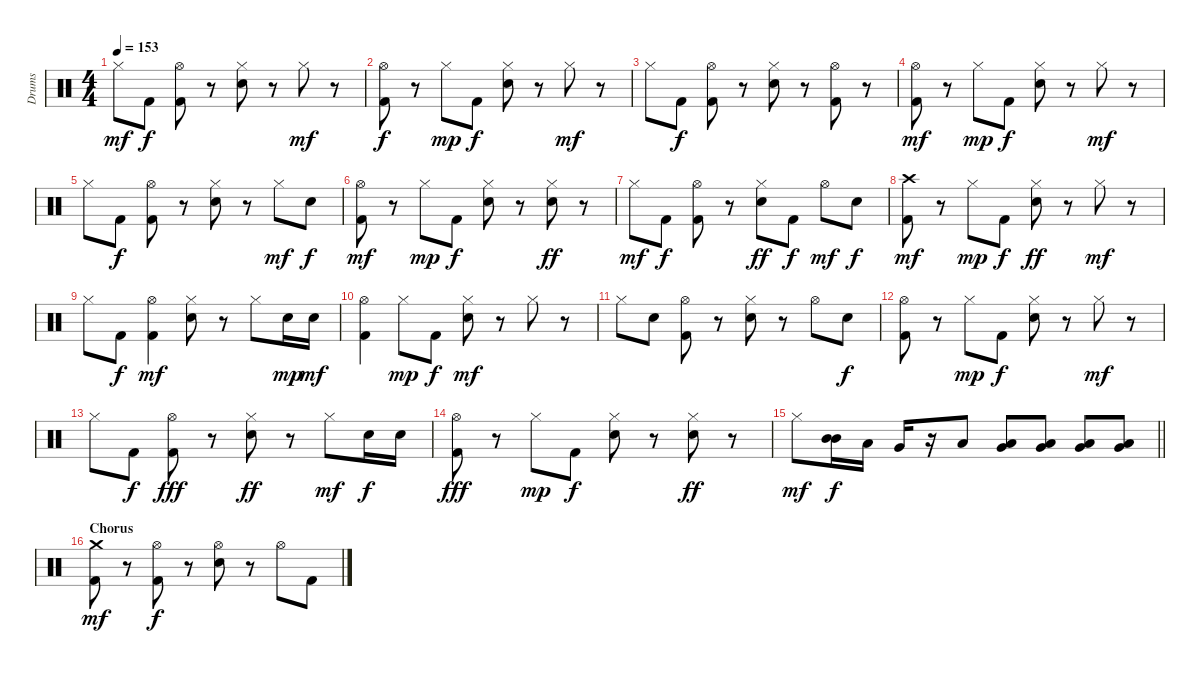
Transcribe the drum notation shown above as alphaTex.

\track ("Drums" "Drums") {instrument percussion}
\staff {score}
\articulation defaults
\ts (4 4)
\tempo 153
\clef neutral
\ks c "Hi-Hat (closed)".8{dy mf} "Kick (hit) 2".8{dy f}
("Hi-Hat (open)" "Kick (hit) 2").8 r.8 ("Hi-Hat (closed)" "Electric Snare (hit)").8 r.8 "Hi-Hat (closed)".8{dy mf} r.8 |
("Hi-Hat (open)" "Kick (hit) 2").8{dy f} r.8 "Hi-Hat (closed)".8{dy mp} "Kick (hit) 2".8{dy f} ("Hi-Hat (closed)" "Electric Snare (hit)").8 r.8 "Hi-Hat (closed)".8{dy mf} r.8 |
"Hi-Hat (closed)".8 "Kick (hit) 2".8{dy f} ("Hi-Hat (open)" "Kick (hit) 2").8 r.8 ("Hi-Hat (closed)" "Electric Snare (hit)").8 r.8 ("Hi-Hat (open)" "Kick (hit) 2").8 r.8 |
("Hi-Hat (open)" "Kick (hit) 2").8{dy mf} r.8 "Hi-Hat (closed)".8{dy mp} "Kick (hit) 2".8{dy f} ("Hi-Hat (closed)" "Electric Snare (hit)").8 r.8 "Hi-Hat (closed)".8{dy mf} r.8 |
"Hi-Hat (closed)".8 "Kick (hit) 2".8{dy f} ("Hi-Hat (open)" "Kick (hit) 2").8 r.8 ("Hi-Hat (closed)" "Electric Snare (hit)").8 r.8 "Hi-Hat (closed)".8{dy mf} "Electric Snare (hit)".8{dy f} |
("Hi-Hat (open)" "Kick (hit) 2").8{dy mf} r.8 "Hi-Hat (closed)".8{dy mp} "Kick (hit) 2".8{dy f} ("Hi-Hat (closed)" "Electric Snare (hit)").8 r.8 ("Hi-Hat (closed)" "Electric Snare (hit)").8{dy ff} r.8 |
"Hi-Hat (closed)".8{dy mf} "Kick (hit) 2".8{dy f} ("Hi-Hat (open)" "Kick (hit) 2").8 r.8 ("Hi-Hat (closed)" "Electric Snare (hit)").8{dy ff} "Kick (hit) 2".8{dy f} "Hi-Hat (open)".8{dy mf} "Electric Snare (hit)".8{dy f} |
("Crash high (hit)" "Kick (hit) 2").8{dy mf} r.8 "Hi-Hat (closed)".8{dy mp} "Kick (hit) 2".8{dy f} ("Hi-Hat (closed)" "Electric Snare (hit)").8{dy ff} r.8 "Hi-Hat (closed)".8{dy mf} r.8 |
"Hi-Hat (closed)".8 "Kick (hit) 2".8{dy f} ("Hi-Hat (open)" "Kick (hit) 2").4{dy mf} ("Electric Snare (hit)" "Hi-Hat (closed)").8 r.8 "Hi-Hat (closed)".8 "Electric Snare (hit)".16{dy mp} "Electric Snare (hit)".16{dy mf} |
("Hi-Hat (open)" "Kick (hit) 2").4 "Hi-Hat (closed)".8{dy mp} "Kick (hit) 2".8{dy f} ("Electric Snare (hit)" "Hi-Hat (closed)").8{dy mf} r.8 "Hi-Hat (closed)".8 r.8 |
"Hi-Hat (closed)".8 "Electric Snare (hit)".8 ("Hi-Hat (open)" "Kick (hit) 2").8 r.8 ("Electric Snare (hit)" "Hi-Hat (closed)").8 r.8 "Hi-Hat (open)".8 "Electric Snare (hit)".8{dy f} |
("Hi-Hat (open)" "Kick (hit) 2").8 r.8 "Hi-Hat (closed)".8{dy mp} "Kick (hit) 2".8{dy f} ("Hi-Hat (closed)" "Electric Snare (hit)").8 r.8 "Hi-Hat (closed)".8{dy mf} r.8 |
"Hi-Hat (closed)".8 "Kick (hit) 2".8{dy f} ("Hi-Hat (open)" "Kick (hit) 2").8{dy fff} r.8 ("Hi-Hat (closed)" "Electric Snare (hit)").8{dy ff} r.8 "Hi-Hat (closed)".8{dy mf} "Electric Snare (hit)".16{dy f} "Electric Snare (hit)".16 |
("Hi-Hat (open)" "Kick (hit) 2").8{dy fff} r.8 "Hi-Hat (closed)".8{dy mp} "Kick (hit) 2".8{dy f} ("Hi-Hat (closed)" "Electric Snare (hit)").8 r.8 ("Hi-Hat (closed)" "Electric Snare (hit)").8{dy ff} r.8 |
\barLineRight lightlight "Hi-Hat (closed)".8{dy mf}
("Mid Tom (hit)" "Mid Tom (hit)").16{dy f} "Low Tom (hit)".16 "Very Low Tom (hit)".16 r.16 "Low Floor Tom (hit)".8 ("Very Low Tom (hit)" "Low Floor Tom (hit)").8 ("Very Low Tom (hit)" "Low Floor Tom (hit)").8 ("Very Low Tom (hit)" "Low Floor Tom (hit)").8 ("Very Low Tom (hit)" "Low Floor Tom (hit)").8 |
\section ("" "Chorus")
("Crash medium (hit)" "Kick (hit) 2").8{dy mf} r.8 ("Hi-Hat (open)" "Kick (hit) 2").8{dy f} r.8 ("Hi-Hat (open)" "Electric Snare (hit)").8 r.8 "Hi-Hat (open)".8 "Kick (hit) 2".8
